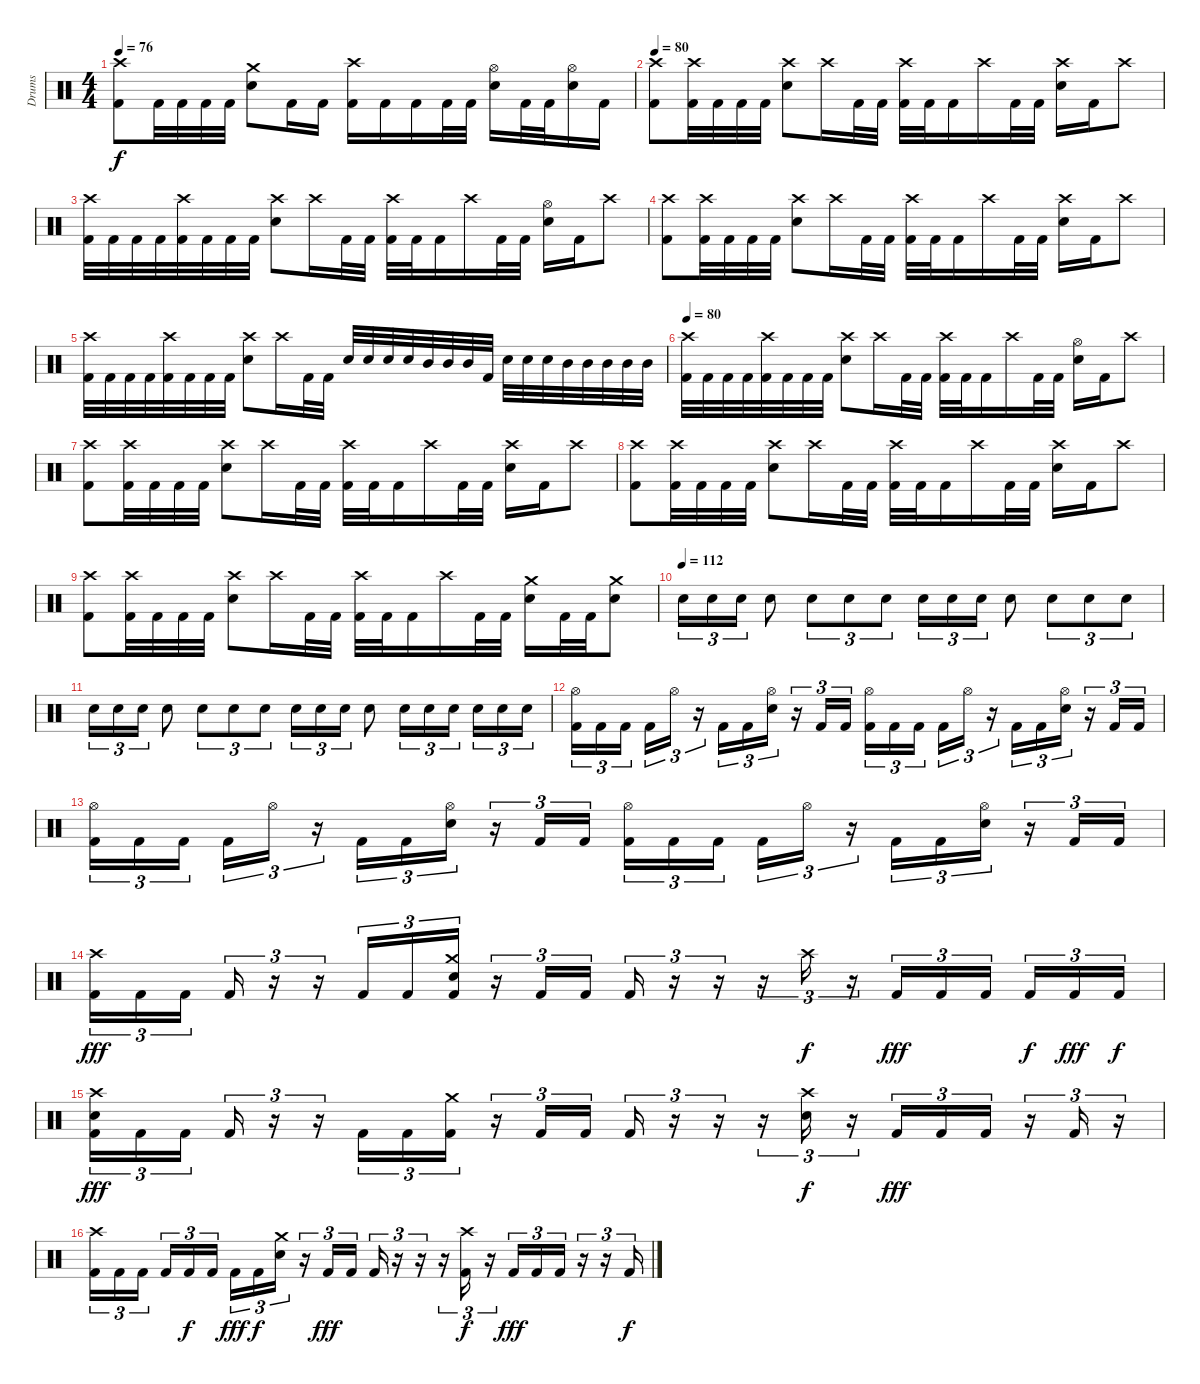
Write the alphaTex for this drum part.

\track ("Drums" "Drums") {instrument percussion}
\staff {score}
\articulation defaults
\ts (4 4)
\tempo 76
\clef neutral
\ks c
("Crash high (hit)" "Kick (hit) 2").8{dy f} "Kick (hit) 2".32 "Kick (hit) 2".32 "Kick (hit) 2".32 "Kick (hit) 2".32 ("Crash medium (hit)" "Electric Snare (hit)").8 "Kick (hit) 2".16 "Kick (hit) 2".16 ("Crash high (hit)" "Kick (hit) 2").16 "Kick (hit) 2".16 "Kick (hit) 2".16 "Kick (hit) 2".32 "Kick (hit) 2".32 ("Hi-Hat (open)" "Electric Snare (hit)").16 "Kick (hit) 2".32 "Kick (hit) 2".32 ("Hi-Hat (open)" "Electric Snare (hit)").16 "Kick (hit) 2".16 |
\tempo 80
("Crash high (hit)" "Kick (hit) 2").8 ("Crash high (hit)" "Kick (hit) 2").32 "Kick (hit) 2".32 "Kick (hit) 2".32 "Kick (hit) 2".32 ("Crash high (hit)" "Electric Snare (hit)").8 "Crash high (hit)".16 "Kick (hit) 2".32 "Kick (hit) 2".32 ("Crash high (hit)" "Kick (hit) 2").32 "Kick (hit) 2".32 "Kick (hit) 2".16 "Crash high (hit)".16 "Kick (hit) 2".32 "Kick (hit) 2".32 ("Crash high (hit)" "Electric Snare (hit)").16 "Kick (hit) 2".16 "Crash high (hit)".8 |
("Crash high (hit)" "Kick (hit) 2").32 "Kick (hit) 2".32 "Kick (hit) 2".32 "Kick (hit) 2".32 ("Crash high (hit)" "Kick (hit) 2").32 "Kick (hit) 2".32 "Kick (hit) 2".32 "Kick (hit) 2".32 ("Crash high (hit)" "Electric Snare (hit)").8 "Crash high (hit)".16 "Kick (hit) 2".32 "Kick (hit) 2".32 ("Crash high (hit)" "Kick (hit) 2").32 "Kick (hit) 2".32 "Kick (hit) 2".16 "Crash high (hit)".16 "Kick (hit) 2".32 "Kick (hit) 2".32 ("Hi-Hat (open)" "Electric Snare (hit)").16 "Kick (hit) 2".16 "Crash high (hit)".8 |
("Crash high (hit)" "Kick (hit) 2").8 ("Crash high (hit)" "Kick (hit) 2").32 "Kick (hit) 2".32 "Kick (hit) 2".32 "Kick (hit) 2".32 ("Crash high (hit)" "Electric Snare (hit)").8 "Crash high (hit)".16 "Kick (hit) 2".32 "Kick (hit) 2".32 ("Crash high (hit)" "Kick (hit) 2").32 "Kick (hit) 2".32 "Kick (hit) 2".16 "Crash high (hit)".16 "Kick (hit) 2".32 "Kick (hit) 2".32 ("Crash high (hit)" "Electric Snare (hit)").16 "Kick (hit) 2".16 "Crash high (hit)".8 |
("Crash high (hit)" "Kick (hit) 2").32 "Kick (hit) 2".32 "Kick (hit) 2".32 "Kick (hit) 2".32 ("Crash high (hit)" "Kick (hit) 2").32 "Kick (hit) 2".32 "Kick (hit) 2".32 "Kick (hit) 2".32 ("Crash high (hit)" "Electric Snare (hit)").8 "Crash high (hit)".16 "Kick (hit) 2".32 "Kick (hit) 2".32 "Electric Snare (hit)".32 "Electric Snare (hit)".32 "Electric Snare (hit)".32 "Electric Snare (hit)".32 "Mid Tom (hit)".32 "Mid Tom (hit)".32 "Mid Tom (hit)".32 "Kick (hit) 2".32 "Electric Snare (hit)".32 "Electric Snare (hit)".32 "Electric Snare (hit)".32 "Mid Tom (hit)".32 "Mid Tom (hit)".32 "Mid Tom (hit)".32 "Mid Tom (hit)".32 "Mid Tom (hit)".32 |
\tempo 80
("Crash high (hit)" "Kick (hit) 2").32 "Kick (hit) 2".32 "Kick (hit) 2".32 "Kick (hit) 2".32 ("Crash high (hit)" "Kick (hit) 2").32 "Kick (hit) 2".32 "Kick (hit) 2".32 "Kick (hit) 2".32 ("Crash high (hit)" "Electric Snare (hit)").8 "Crash high (hit)".16 "Kick (hit) 2".32 "Kick (hit) 2".32 ("Crash high (hit)" "Kick (hit) 2").32 "Kick (hit) 2".32 "Kick (hit) 2".16 "Crash high (hit)".16 "Kick (hit) 2".32 "Kick (hit) 2".32 ("Hi-Hat (open)" "Electric Snare (hit)").16 "Kick (hit) 2".16 "Crash high (hit)".8 |
("Crash high (hit)" "Kick (hit) 2").8 ("Crash high (hit)" "Kick (hit) 2").32 "Kick (hit) 2".32 "Kick (hit) 2".32 "Kick (hit) 2".32 ("Crash high (hit)" "Electric Snare (hit)").8 "Crash high (hit)".16 "Kick (hit) 2".32 "Kick (hit) 2".32 ("Crash high (hit)" "Kick (hit) 2").32 "Kick (hit) 2".32 "Kick (hit) 2".16 "Crash high (hit)".16 "Kick (hit) 2".32 "Kick (hit) 2".32 ("Crash high (hit)" "Electric Snare (hit)").16 "Kick (hit) 2".16 "Crash high (hit)".8 |
("Crash high (hit)" "Kick (hit) 2").8 ("Crash high (hit)" "Kick (hit) 2").32 "Kick (hit) 2".32 "Kick (hit) 2".32 "Kick (hit) 2".32 ("Crash high (hit)" "Electric Snare (hit)").8 "Crash high (hit)".16 "Kick (hit) 2".32 "Kick (hit) 2".32 ("Crash high (hit)" "Kick (hit) 2").32 "Kick (hit) 2".32 "Kick (hit) 2".16 "Crash high (hit)".16 "Kick (hit) 2".32 "Kick (hit) 2".32 ("Crash high (hit)" "Electric Snare (hit)").16 "Kick (hit) 2".16 "Crash high (hit)".8 |
("Crash high (hit)" "Kick (hit) 2").8 ("Crash high (hit)" "Kick (hit) 2").32 "Kick (hit) 2".32 "Kick (hit) 2".32 "Kick (hit) 2".32 ("Crash high (hit)" "Electric Snare (hit)").8 "Crash high (hit)".16 "Kick (hit) 2".32 "Kick (hit) 2".32 ("Crash high (hit)" "Kick (hit) 2").32 "Kick (hit) 2".32 "Kick (hit) 2".16 "Crash high (hit)".16 "Kick (hit) 2".32 "Kick (hit) 2".32 ("Crash medium (hit)" "Electric Snare (hit)").16 "Kick (hit) 2".32 "Kick (hit) 2".32 ("Crash medium (hit)" "Electric Snare (hit)").8 |
\tempo 108
\tempo (112)
"Electric Snare (hit)".16{tu (3 2)} "Electric Snare (hit)".16{tu (3 2)} "Electric Snare (hit)".16{tu (3 2)} "Electric Snare (hit)".8 "Electric Snare (hit)".8{tu (3 2)} "Electric Snare (hit)".8{tu (3 2)} "Electric Snare (hit)".8{tu (3 2)} "Electric Snare (hit)".16{tu (3 2)} "Electric Snare (hit)".16{tu (3 2)} "Electric Snare (hit)".16{tu (3 2)} "Electric Snare (hit)".8 "Electric Snare (hit)".8{tu (3 2)} "Electric Snare (hit)".8{tu (3 2)} "Electric Snare (hit)".8{tu (3 2)} |
"Electric Snare (hit)".16{tu (3 2)} "Electric Snare (hit)".16{tu (3 2)} "Electric Snare (hit)".16{tu (3 2)} "Electric Snare (hit)".8 "Electric Snare (hit)".8{tu (3 2)} "Electric Snare (hit)".8{tu (3 2)} "Electric Snare (hit)".8{tu (3 2)} "Electric Snare (hit)".16{tu (3 2)} "Electric Snare (hit)".16{tu (3 2)} "Electric Snare (hit)".16{tu (3 2)} "Electric Snare (hit)".8 "Electric Snare (hit)".16{tu (3 2)} "Electric Snare (hit)".16{tu (3 2)} "Electric Snare (hit)".16{tu (3 2)} "Electric Snare (hit)".16{tu (3 2)} "Electric Snare (hit)".16{tu (3 2)} "Electric Snare (hit)".16{tu (3 2)} |
("Hi-Hat (open)" "Kick (hit) 2").16{tu (3 2)} "Kick (hit) 2".16{tu (3 2)} "Kick (hit) 2".16{tu (3 2)} "Kick (hit) 2".16{tu (3 2)} "Hi-Hat (open)".16{tu (3 2)} r.16{tu (3 2)} "Kick (hit) 2".16{tu (3 2)} "Kick (hit) 2".16{tu (3 2)} ("Hi-Hat (open)" "Electric Snare (hit)").16{tu (3 2)} r.16{tu (3 2)} "Kick (hit) 2".16{tu (3 2)} "Kick (hit) 2".16{tu (3 2)} ("Hi-Hat (open)" "Kick (hit) 2").16{tu (3 2)} "Kick (hit) 2".16{tu (3 2)} "Kick (hit) 2".16{tu (3 2)} "Kick (hit) 2".16{tu (3 2)} "Hi-Hat (open)".16{tu (3 2)} r.16{tu (3 2)} "Kick (hit) 2".16{tu (3 2)} "Kick (hit) 2".16{tu (3 2)} ("Hi-Hat (open)" "Electric Snare (hit)").16{tu (3 2)} r.16{tu (3 2)} "Kick (hit) 2".16{tu (3 2)} "Kick (hit) 2".16{tu (3 2)} |
("Hi-Hat (open)" "Kick (hit) 2").16{tu (3 2)} "Kick (hit) 2".16{tu (3 2)} "Kick (hit) 2".16{tu (3 2)} "Kick (hit) 2".16{tu (3 2)} "Hi-Hat (open)".16{tu (3 2)} r.16{tu (3 2)} "Kick (hit) 2".16{tu (3 2)} "Kick (hit) 2".16{tu (3 2)} ("Hi-Hat (open)" "Electric Snare (hit)").16{tu (3 2)} r.16{tu (3 2)} "Kick (hit) 2".16{tu (3 2)} "Kick (hit) 2".16{tu (3 2)} ("Hi-Hat (open)" "Kick (hit) 2").16{tu (3 2)} "Kick (hit) 2".16{tu (3 2)} "Kick (hit) 2".16{tu (3 2)} "Kick (hit) 2".16{tu (3 2)} "Hi-Hat (open)".16{tu (3 2)} r.16{tu (3 2)} "Kick (hit) 2".16{tu (3 2)} "Kick (hit) 2".16{tu (3 2)} ("Hi-Hat (open)" "Electric Snare (hit)").16{tu (3 2)} r.16{tu (3 2)} "Kick (hit) 2".16{tu (3 2)} "Kick (hit) 2".16{tu (3 2)} |
("Crash high (hit)" "Kick (hit) 2").16{tu (3 2) dy fff} "Kick (hit) 2".16{tu (3 2)} "Kick (hit) 2".16{tu (3 2)} "Kick (hit) 2".16{tu (3 2)} r.16{tu (3 2)} r.16{tu (3 2)} "Kick (hit) 2".16{tu (3 2)} "Kick (hit) 2".16{tu (3 2)} ("Crash medium (hit)" "Electric Snare (hit)" "Kick (hit) 2").16{tu (3 2)} r.16{tu (3 2)} "Kick (hit) 2".16{tu (3 2)} "Kick (hit) 2".16{tu (3 2)} "Kick (hit) 2".16{tu (3 2)} r.16{tu (3 2)} r.16{tu (3 2)} r.16{tu (3 2)} "Crash high (hit)".16{tu (3 2) dy f} r.16{tu (3 2)} "Kick (hit) 2".16{tu (3 2) dy fff} "Kick (hit) 2".16{tu (3 2)} "Kick (hit) 2".16{tu (3 2)} "Kick (hit) 2".16{tu (3 2) dy f} "Kick (hit) 2".16{tu (3 2) dy fff} "Kick (hit) 2".16{tu (3 2) dy f} |
("Crash high (hit)" "Electric Snare (hit)" "Kick (hit) 2").16{tu (3 2) dy fff} "Kick (hit) 2".16{tu (3 2)} "Kick (hit) 2".16{tu (3 2)} "Kick (hit) 2".16{tu (3 2)} r.16{tu (3 2)} r.16{tu (3 2)} "Kick (hit) 2".16{tu (3 2)} "Kick (hit) 2".16{tu (3 2)} ("Crash medium (hit)" "Kick (hit) 2").16{tu (3 2)} r.16{tu (3 2)} "Kick (hit) 2".16{tu (3 2)} "Kick (hit) 2".16{tu (3 2)} "Kick (hit) 2".16{tu (3 2)} r.16{tu (3 2)} r.16{tu (3 2)} r.16{tu (3 2)} ("Crash high (hit)" "Electric Snare (hit)").16{tu (3 2) dy f} r.16{tu (3 2)} "Kick (hit) 2".16{tu (3 2) dy fff} "Kick (hit) 2".16{tu (3 2)} "Kick (hit) 2".16{tu (3 2)} r.16{tu (3 2)} "Kick (hit) 2".16{tu (3 2)} r.16{tu (3 2)} |
("Crash high (hit)" "Kick (hit) 2").16{tu (3 2)} "Kick (hit) 2".16{tu (3 2)} "Kick (hit) 2".16{tu (3 2)} "Kick (hit) 2".16{tu (3 2)} "Kick (hit) 2".16{tu (3 2) dy f} "Kick (hit) 2".16{tu (3 2)} "Kick (hit) 2".16{tu (3 2) dy fff} "Kick (hit) 2".16{tu (3 2) dy f} ("Crash medium (hit)" "Electric Snare (hit)").16{tu (3 2)} r.16{tu (3 2)} "Kick (hit) 2".16{tu (3 2) dy fff} "Kick (hit) 2".16{tu (3 2)} "Kick (hit) 2".16{tu (3 2)} r.16{tu (3 2)} r.16{tu (3 2)} r.16{tu (3 2)} ("Crash high (hit)" "Kick (hit) 2").16{tu (3 2) dy f} r.16{tu (3 2)} "Kick (hit) 2".16{tu (3 2) dy fff} "Kick (hit) 2".16{tu (3 2)} "Kick (hit) 2".16{tu (3 2)} r.16{tu (3 2)} r.16{tu (3 2)} "Kick (hit) 2".16{tu (3 2) dy f}
